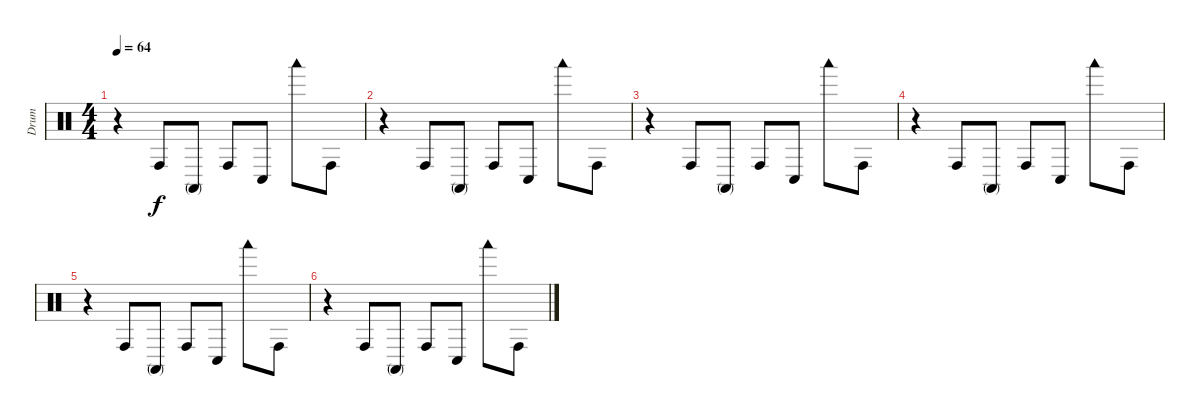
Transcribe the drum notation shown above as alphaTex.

\track ("Drum" "Drum") {instrument percussion}
\staff {score}
\articulation defaults
\ts (4 4)
\tempo 64
\clef neutral
\ks c
r.4{dy f} "Conga high (hit)".8 "Conga high (mute)".8 "Conga high (hit)".8 "Conga low (hit)".8 "Woodblock low (hit)".8 "Conga high (hit)".8 |
r.4 "Conga high (hit)".8 "Conga high (mute)".8 "Conga high (hit)".8 "Conga low (hit)".8 "Woodblock low (hit)".8 "Conga high (hit)".8 |
r.4 "Conga high (hit)".8 "Conga high (mute)".8 "Conga high (hit)".8 "Conga low (hit)".8 "Woodblock low (hit)".8 "Conga high (hit)".8 |
r.4 "Conga high (hit)".8 "Conga high (mute)".8 "Conga high (hit)".8 "Conga low (hit)".8 "Woodblock low (hit)".8 "Conga high (hit)".8 |
r.4 "Conga high (hit)".8 "Conga high (mute)".8 "Conga high (hit)".8 "Conga low (hit)".8 "Woodblock low (hit)".8 "Conga high (hit)".8 |
r.4 "Conga high (hit)".8 "Conga high (mute)".8 "Conga high (hit)".8 "Conga low (hit)".8 "Woodblock low (hit)".8 "Conga high (hit)".8
